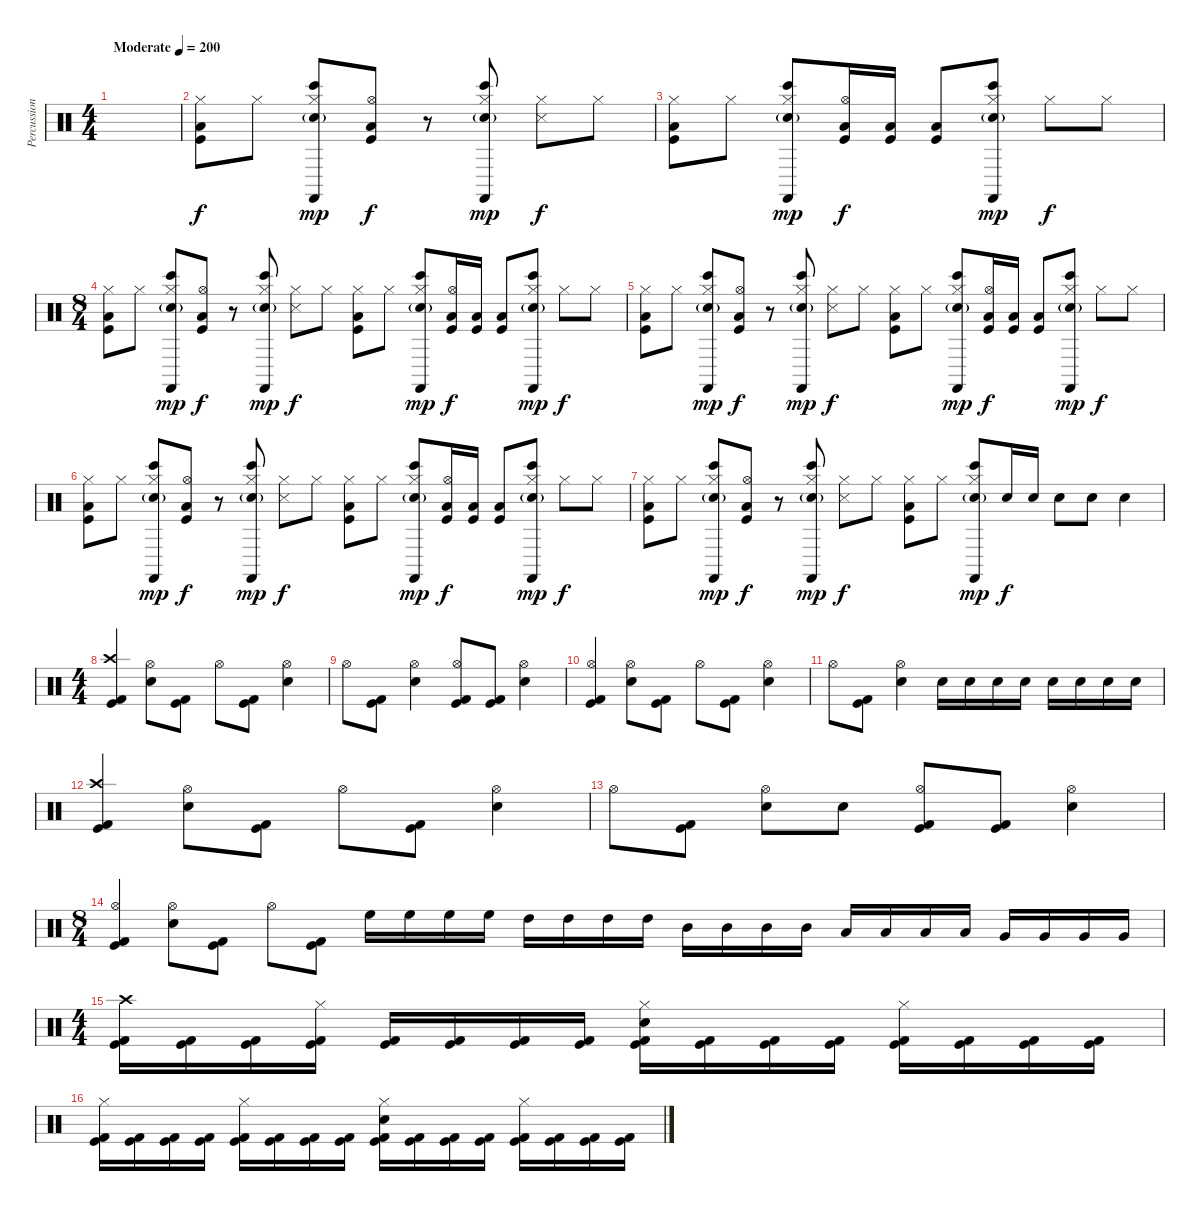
\track ("Percussions" "Percussion") {instrument percussion}
\staff {score}
\articulation defaults
\ts (4 4)
\tempo (200 "Moderate")
\clef neutral
\ks c
|
("Hi-Hat (closed)" "Kick (hit)" "Low Floor Tom (hit)").8{volume 9} "Hi-Hat (closed)".8 ("Bongo High (hit)" "Hi-Hat (closed)" "Electric Snare (hit)"{g} "Castanets (hit)").8{dy mp} ("Hi-Hat (open)" "Kick (hit)" "Low Floor Tom (hit)").8{dy f} r.8 ("Bongo High (hit)" "Hi-Hat (closed)" "Electric Snare (hit)"{g} "Castanets (hit)").8{dy mp} ("Hi-Hat (closed)" "Metronome (hit)").8{dy f} "Hi-Hat (closed)".8 |
("Hi-Hat (closed)" "Kick (hit)" "Low Floor Tom (hit)").8 "Hi-Hat (closed)".8 ("Bongo High (hit)" "Hi-Hat (closed)" "Electric Snare (hit)"{g} "Castanets (hit)").8{dy mp} ("Hi-Hat (open)" "Kick (hit)" "Low Floor Tom (hit)").16{dy f} ("Kick (hit)" "Low Floor Tom (hit)").16 ("Kick (hit)" "Low Floor Tom (hit)").8 ("Bongo High (hit)" "Hi-Hat (closed)" "Electric Snare (hit)"{g} "Castanets (hit)").8{dy mp} "Hi-Hat (closed)".8{dy f} "Hi-Hat (closed)".8 |
\ts (8 4)
("Hi-Hat (closed)" "Kick (hit)" "Low Floor Tom (hit)").8 "Hi-Hat (closed)".8 ("Bongo High (hit)" "Hi-Hat (closed)" "Electric Snare (hit)"{g} "Castanets (hit)").8{dy mp} ("Hi-Hat (open)" "Kick (hit)" "Low Floor Tom (hit)").8{dy f} r.8 ("Bongo High (hit)" "Hi-Hat (closed)" "Electric Snare (hit)"{g} "Castanets (hit)").8{dy mp} ("Hi-Hat (closed)" "Metronome (hit)").8{dy f} "Hi-Hat (closed)".8 ("Hi-Hat (closed)" "Kick (hit)" "Low Floor Tom (hit)").8 "Hi-Hat (closed)".8 ("Bongo High (hit)" "Hi-Hat (closed)" "Electric Snare (hit)"{g} "Castanets (hit)").8{dy mp} ("Hi-Hat (open)" "Kick (hit)" "Low Floor Tom (hit)").16{dy f} ("Kick (hit)" "Low Floor Tom (hit)").16 ("Kick (hit)" "Low Floor Tom (hit)").8 ("Bongo High (hit)" "Hi-Hat (closed)" "Electric Snare (hit)"{g} "Castanets (hit)").8{dy mp} "Hi-Hat (closed)".8{dy f} "Hi-Hat (closed)".8 |
("Hi-Hat (closed)" "Kick (hit)" "Low Floor Tom (hit)").8 "Hi-Hat (closed)".8 ("Bongo High (hit)" "Hi-Hat (closed)" "Electric Snare (hit)"{g} "Castanets (hit)").8{dy mp} ("Hi-Hat (open)" "Kick (hit)" "Low Floor Tom (hit)").8{dy f} r.8 ("Bongo High (hit)" "Hi-Hat (closed)" "Electric Snare (hit)"{g} "Castanets (hit)").8{dy mp} ("Hi-Hat (closed)" "Metronome (hit)").8{dy f} "Hi-Hat (closed)".8 ("Hi-Hat (closed)" "Kick (hit)" "Low Floor Tom (hit)").8 "Hi-Hat (closed)".8 ("Bongo High (hit)" "Hi-Hat (closed)" "Electric Snare (hit)"{g} "Castanets (hit)").8{dy mp} ("Hi-Hat (open)" "Kick (hit)" "Low Floor Tom (hit)").16{dy f} ("Kick (hit)" "Low Floor Tom (hit)").16 ("Kick (hit)" "Low Floor Tom (hit)").8 ("Bongo High (hit)" "Hi-Hat (closed)" "Electric Snare (hit)"{g} "Castanets (hit)").8{dy mp} "Hi-Hat (closed)".8{dy f} "Hi-Hat (closed)".8 |
("Hi-Hat (closed)" "Kick (hit)" "Low Floor Tom (hit)").8 "Hi-Hat (closed)".8 ("Bongo High (hit)" "Hi-Hat (closed)" "Electric Snare (hit)"{g} "Castanets (hit)").8{dy mp} ("Hi-Hat (open)" "Kick (hit)" "Low Floor Tom (hit)").8{dy f} r.8 ("Bongo High (hit)" "Hi-Hat (closed)" "Electric Snare (hit)"{g} "Castanets (hit)").8{dy mp} ("Hi-Hat (closed)" "Metronome (hit)").8{dy f} "Hi-Hat (closed)".8 ("Hi-Hat (closed)" "Kick (hit)" "Low Floor Tom (hit)").8 "Hi-Hat (closed)".8 ("Bongo High (hit)" "Hi-Hat (closed)" "Electric Snare (hit)"{g} "Castanets (hit)").8{dy mp} ("Hi-Hat (open)" "Kick (hit)" "Low Floor Tom (hit)").16{dy f} ("Kick (hit)" "Low Floor Tom (hit)").16 ("Kick (hit)" "Low Floor Tom (hit)").8 ("Bongo High (hit)" "Hi-Hat (closed)" "Electric Snare (hit)"{g} "Castanets (hit)").8{dy mp} "Hi-Hat (closed)".8{dy f} "Hi-Hat (closed)".8 |
("Hi-Hat (closed)" "Kick (hit)" "Low Floor Tom (hit)").8 "Hi-Hat (closed)".8 ("Bongo High (hit)" "Hi-Hat (closed)" "Electric Snare (hit)"{g} "Castanets (hit)").8{dy mp} ("Hi-Hat (open)" "Kick (hit)" "Low Floor Tom (hit)").8{dy f} r.8 ("Bongo High (hit)" "Hi-Hat (closed)" "Electric Snare (hit)"{g} "Castanets (hit)").8{dy mp} ("Hi-Hat (closed)" "Metronome (hit)").8{dy f} "Hi-Hat (closed)".8 ("Hi-Hat (closed)" "Kick (hit)" "Low Floor Tom (hit)").8 "Hi-Hat (closed)".8 ("Bongo High (hit)" "Hi-Hat (closed)" "Electric Snare (hit)"{g} "Castanets (hit)").8{dy mp} "Electric Snare (hit)".16{dy f volume 16} "Electric Snare (hit)".16 "Electric Snare (hit)".8 "Electric Snare (hit)".8 "Electric Snare (hit)".4 |
\ts (4 4)
("Crash high (hit)" "Kick (hit)" "Kick (hit) 2").4 ("Hi-Hat (open)" "Electric Snare (hit)").8 ("Kick (hit)" "Kick (hit) 2").8 "Hi-Hat (open)".8 ("Kick (hit)" "Kick (hit) 2").8 ("Hi-Hat (open)" "Electric Snare (hit)").4 |
"Hi-Hat (open)".8 ("Kick (hit)" "Kick (hit) 2").8 ("Hi-Hat (open)" "Electric Snare (hit)").4 ("Hi-Hat (open)" "Kick (hit)" "Kick (hit) 2").8 ("Kick (hit)" "Kick (hit) 2").8 ("Hi-Hat (open)" "Electric Snare (hit)").4 |
("Hi-Hat (open)" "Kick (hit)" "Kick (hit) 2").4 ("Hi-Hat (open)" "Electric Snare (hit)").8 ("Kick (hit)" "Kick (hit) 2").8 "Hi-Hat (open)".8 ("Kick (hit)" "Kick (hit) 2").8 ("Hi-Hat (open)" "Electric Snare (hit)").4 |
"Hi-Hat (open)".8 ("Kick (hit)" "Kick (hit) 2").8 ("Hi-Hat (open)" "Electric Snare (hit)").4 "Electric Snare (hit)".16 "Electric Snare (hit)".16 "Electric Snare (hit)".16 "Electric Snare (hit)".16 "Electric Snare (hit)".16 "Electric Snare (hit)".16 "Electric Snare (hit)".16 "Electric Snare (hit)".16 |
("Crash high (hit)" "Kick (hit)" "Kick (hit) 2").4 ("Hi-Hat (open)" "Electric Snare (hit)").8 ("Kick (hit)" "Kick (hit) 2").8 "Hi-Hat (open)".8 ("Kick (hit)" "Kick (hit) 2").8 ("Hi-Hat (open)" "Electric Snare (hit)").4 |
"Hi-Hat (open)".8 ("Kick (hit)" "Kick (hit) 2").8 ("Hi-Hat (open)" "Electric Snare (hit)").8 "Electric Snare (hit)".8 ("Hi-Hat (open)" "Kick (hit)" "Kick (hit) 2").8 ("Kick (hit)" "Kick (hit) 2").8 ("Hi-Hat (open)" "Electric Snare (hit)").4 |
\ts (8 4)
("Hi-Hat (open)" "Kick (hit)" "Kick (hit) 2").4 ("Hi-Hat (open)" "Electric Snare (hit)").8 ("Kick (hit)" "Kick (hit) 2").8 "Hi-Hat (open)".8 ("Kick (hit)" "Kick (hit) 2").8 "High Floor Tom (hit)".16 "High Floor Tom (hit)".16 "High Floor Tom (hit)".16 "High Floor Tom (hit)".16 "High Tom (hit)".16 "High Tom (hit)".16 "High Tom (hit)".16 "High Tom (hit)".16 "Mid Tom (hit)".16 "Mid Tom (hit)".16 "Mid Tom (hit)".16 "Mid Tom (hit)".16 "Low Tom (hit)".16 "Low Tom (hit)".16 "Low Tom (hit)".16 "Low Tom (hit)".16 "Very Low Tom (hit)".16 "Very Low Tom (hit)".16 "Very Low Tom (hit)".16 "Very Low Tom (hit)".16 |
\ts (4 4)
("Crash high (hit)" "Kick (hit)" "Kick (hit) 2").16 ("Kick (hit)" "Kick (hit) 2").16 ("Kick (hit)" "Kick (hit) 2").16 ("Hi-Hat (closed)" "Kick (hit)" "Kick (hit) 2").16 ("Kick (hit)" "Kick (hit) 2").16 ("Kick (hit)" "Kick (hit) 2").16 ("Kick (hit)" "Kick (hit) 2").16 ("Kick (hit)" "Kick (hit) 2").16 ("Hi-Hat (closed)" "Electric Snare (hit)" "Kick (hit)" "Kick (hit) 2").16 ("Kick (hit)" "Kick (hit) 2").16 ("Kick (hit)" "Kick (hit) 2").16 ("Kick (hit)" "Kick (hit) 2").16 ("Hi-Hat (closed)" "Kick (hit)" "Kick (hit) 2").16 ("Kick (hit)" "Kick (hit) 2").16 ("Kick (hit)" "Kick (hit) 2").16 ("Kick (hit)" "Kick (hit) 2").16 |
("Hi-Hat (closed)" "Kick (hit)" "Kick (hit) 2").16 ("Kick (hit)" "Kick (hit) 2").16 ("Kick (hit)" "Kick (hit) 2").16 ("Kick (hit)" "Kick (hit) 2").16 ("Hi-Hat (closed)" "Kick (hit)" "Kick (hit) 2").16 ("Kick (hit)" "Kick (hit) 2").16 ("Kick (hit)" "Kick (hit) 2").16 ("Kick (hit)" "Kick (hit) 2").16 ("Hi-Hat (closed)" "Electric Snare (hit)" "Kick (hit)" "Kick (hit) 2").16 ("Kick (hit)" "Kick (hit) 2").16 ("Kick (hit)" "Kick (hit) 2").16 ("Kick (hit)" "Kick (hit) 2").16 ("Hi-Hat (closed)" "Kick (hit)" "Kick (hit) 2").16 ("Kick (hit)" "Kick (hit) 2").16 ("Kick (hit)" "Kick (hit) 2").16 ("Kick (hit)" "Kick (hit) 2").16
